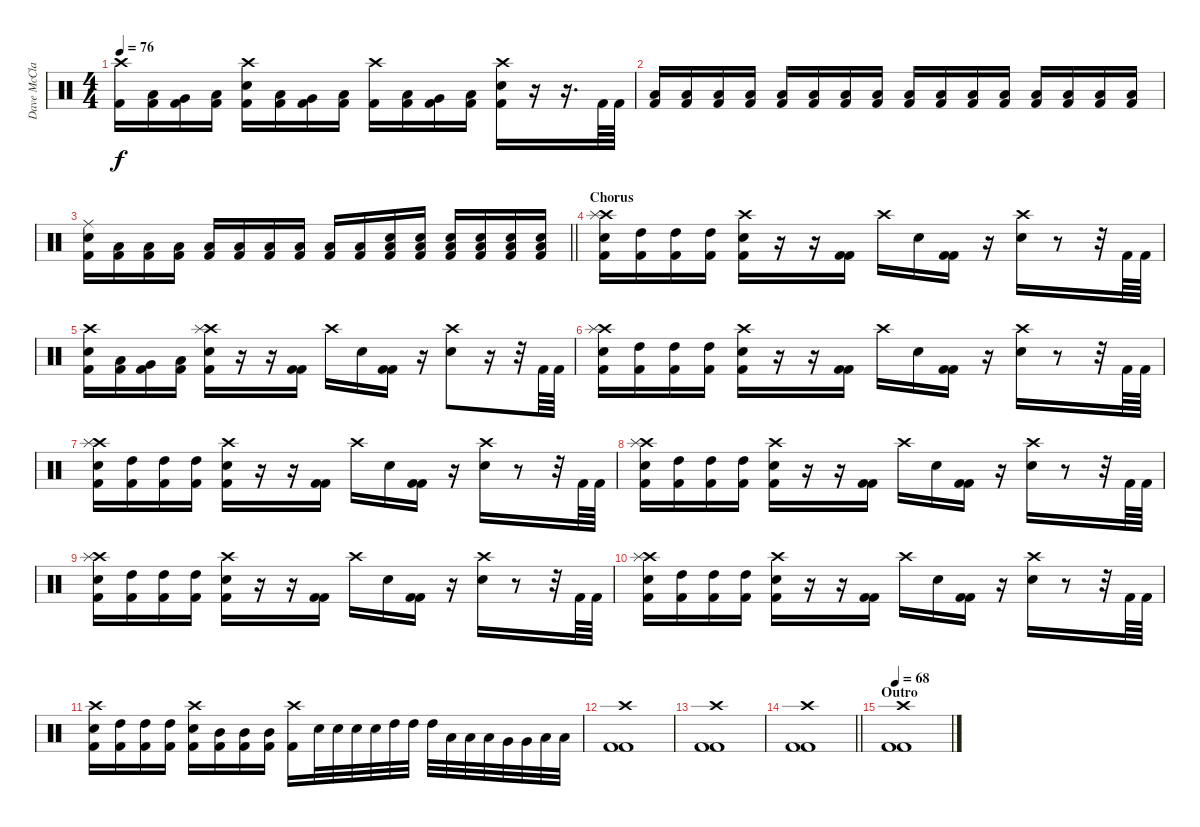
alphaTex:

\track ("Dave McClain - Drums" "Dave McCla") {instrument percussion}
\staff {score}
\articulation defaults
\ts (4 4)
\tempo 76
\clef neutral
\ks c
("Crash high (hit)" "Kick (hit) 2").16{dy f} ("Low Tom (hit)" "Kick (hit) 2").16 ("Very Low Tom (hit)" "Kick (hit) 2").16 ("Low Floor Tom (hit)" "Kick (hit) 2").16 ("Crash high (hit)" "Electric Snare (hit)" "Kick (hit) 2").16 ("Low Tom (hit)" "Kick (hit) 2").16 ("Very Low Tom (hit)" "Kick (hit) 2").16 ("Low Floor Tom (hit)" "Kick (hit) 2").16 ("Crash high (hit)" "Kick (hit) 2").16 ("Low Tom (hit)" "Kick (hit) 2").16 ("Very Low Tom (hit)" "Kick (hit) 2").16 ("Low Floor Tom (hit)" "Kick (hit) 2").16 ("Crash high (hit)" "Electric Snare (hit)" "Kick (hit) 2").16 r.16 r.16{d} "Kick (hit) 2".64 "Kick (hit) 2".64 |
("Low Floor Tom (hit)" "Kick (hit) 2").16 ("Low Floor Tom (hit)" "Kick (hit) 2").16 ("Low Floor Tom (hit)" "Kick (hit) 2").16 ("Low Floor Tom (hit)" "Kick (hit) 2").16 ("Low Floor Tom (hit)" "Kick (hit) 2").16 ("Low Floor Tom (hit)" "Kick (hit) 2").16 ("Low Floor Tom (hit)" "Kick (hit) 2").16 ("Low Floor Tom (hit)" "Kick (hit) 2").16 ("Low Floor Tom (hit)" "Kick (hit) 2").16 ("Low Floor Tom (hit)" "Kick (hit) 2").16 ("Low Floor Tom (hit)" "Kick (hit) 2").16 ("Low Floor Tom (hit)" "Kick (hit) 2").16 ("Low Floor Tom (hit)" "Kick (hit) 2").16 ("Low Floor Tom (hit)" "Kick (hit) 2").16 ("Low Floor Tom (hit)" "Kick (hit) 2").16 ("Low Floor Tom (hit)" "Kick (hit) 2").16 |
\barLineRight lightlight
("Ride (middle)" "Electric Snare (hit)" "Kick (hit) 2").16 ("Low Floor Tom (hit)" "Kick (hit) 2").16 ("Low Floor Tom (hit)" "Kick (hit) 2").16 ("Low Floor Tom (hit)" "Kick (hit) 2").16 ("Low Floor Tom (hit)" "Kick (hit) 2").16 ("Low Floor Tom (hit)" "Kick (hit) 2").16 ("Low Floor Tom (hit)" "Kick (hit) 2").16 ("Low Floor Tom (hit)" "Kick (hit) 2").16 ("Low Floor Tom (hit)" "Kick (hit) 2").16 ("Low Floor Tom (hit)" "Kick (hit) 2").16 ("Electric Snare (hit)" "Low Floor Tom (hit)" "Kick (hit) 2").16 ("Electric Snare (hit)" "Low Floor Tom (hit)" "Kick (hit) 2").16 ("Electric Snare (hit)" "Low Floor Tom (hit)" "Kick (hit) 2").16 ("Electric Snare (hit)" "Low Floor Tom (hit)" "Kick (hit) 2").16 ("Electric Snare (hit)" "Low Floor Tom (hit)" "Kick (hit) 2").16 ("Electric Snare (hit)" "Low Floor Tom (hit)" "Kick (hit) 2").16 |
\section ("" "Chorus")
("Crash high (hit)" "Splash (hit)" "Electric Snare (hit)" "Kick (hit) 2").16 ("High Tom (hit)" "Kick (hit) 2").16 ("High Tom (hit)" "Kick (hit) 2").16 ("High Tom (hit)" "Kick (hit) 2").16 ("Crash high (hit)" "Electric Snare (hit)" "Kick (hit) 2").16 r.16 r.16 ("Kick (hit) 2" "Kick (hit) 2").16 "Crash high (hit)".16 "Electric Snare (hit)".16 ("Kick (hit) 2" "Kick (hit) 2").16 r.16 ("Crash high (hit)" "Electric Snare (hit)").16 r.8 r.32 "Kick (hit) 2".64 "Kick (hit) 2".64 |
("Crash high (hit)" "Electric Snare (hit)" "Kick (hit) 2").16 ("Low Tom (hit)" "Kick (hit) 2").16 ("Very Low Tom (hit)" "Kick (hit) 2").16 ("Low Floor Tom (hit)" "Kick (hit) 2").16 ("Crash high (hit)" "Splash (hit)" "Electric Snare (hit)" "Kick (hit) 2").16 r.16 r.16 ("Kick (hit) 2" "Kick (hit) 2").16 "Crash high (hit)".16 "Electric Snare (hit)".16 ("Kick (hit) 2" "Kick (hit) 2").16 r.16 ("Crash high (hit)" "Electric Snare (hit)").8 r.16 r.32 "Kick (hit) 2".64 "Kick (hit) 2".64 |
("Crash high (hit)" "Splash (hit)" "Electric Snare (hit)" "Kick (hit) 2").16 ("High Tom (hit)" "Kick (hit) 2").16 ("High Tom (hit)" "Kick (hit) 2").16 ("High Tom (hit)" "Kick (hit) 2").16 ("Crash high (hit)" "Electric Snare (hit)" "Kick (hit) 2").16 r.16 r.16 ("Kick (hit) 2" "Kick (hit) 2").16 "Crash high (hit)".16 "Electric Snare (hit)".16 ("Kick (hit) 2" "Kick (hit) 2").16 r.16 ("Crash high (hit)" "Electric Snare (hit)").16 r.8 r.32 "Kick (hit) 2".64 "Kick (hit) 2".64 |
("Crash high (hit)" "Splash (hit)" "Electric Snare (hit)" "Kick (hit) 2").16 ("High Tom (hit)" "Kick (hit) 2").16 ("High Tom (hit)" "Kick (hit) 2").16 ("High Tom (hit)" "Kick (hit) 2").16 ("Crash high (hit)" "Electric Snare (hit)" "Kick (hit) 2").16 r.16 r.16 ("Kick (hit) 2" "Kick (hit) 2").16 "Crash high (hit)".16 "Electric Snare (hit)".16 ("Kick (hit) 2" "Kick (hit) 2").16 r.16 ("Crash high (hit)" "Electric Snare (hit)").16 r.8 r.32 "Kick (hit) 2".64 "Kick (hit) 2".64 |
("Crash high (hit)" "Splash (hit)" "Electric Snare (hit)" "Kick (hit) 2").16 ("High Tom (hit)" "Kick (hit) 2").16 ("High Tom (hit)" "Kick (hit) 2").16 ("High Tom (hit)" "Kick (hit) 2").16 ("Crash high (hit)" "Electric Snare (hit)" "Kick (hit) 2").16 r.16 r.16 ("Kick (hit) 2" "Kick (hit) 2").16 "Crash high (hit)".16 "Electric Snare (hit)".16 ("Kick (hit) 2" "Kick (hit) 2").16 r.16 ("Crash high (hit)" "Electric Snare (hit)").16 r.8 r.32 "Kick (hit) 2".64 "Kick (hit) 2".64 |
("Crash high (hit)" "Splash (hit)" "Electric Snare (hit)" "Kick (hit) 2").16 ("High Tom (hit)" "Kick (hit) 2").16 ("High Tom (hit)" "Kick (hit) 2").16 ("High Tom (hit)" "Kick (hit) 2").16 ("Crash high (hit)" "Electric Snare (hit)" "Kick (hit) 2").16 r.16 r.16 ("Kick (hit) 2" "Kick (hit) 2").16 "Crash high (hit)".16 "Electric Snare (hit)".16 ("Kick (hit) 2" "Kick (hit) 2").16 r.16 ("Crash high (hit)" "Electric Snare (hit)").16 r.8 r.32 "Kick (hit) 2".64 "Kick (hit) 2".64 |
("Crash high (hit)" "Splash (hit)" "Electric Snare (hit)" "Kick (hit) 2").16 ("High Tom (hit)" "Kick (hit) 2").16 ("High Tom (hit)" "Kick (hit) 2").16 ("High Tom (hit)" "Kick (hit) 2").16 ("Crash high (hit)" "Electric Snare (hit)" "Kick (hit) 2").16 r.16 r.16 ("Kick (hit) 2" "Kick (hit) 2").16 "Crash high (hit)".16 "Electric Snare (hit)".16 ("Kick (hit) 2" "Kick (hit) 2").16 r.16 ("Crash high (hit)" "Electric Snare (hit)").16 r.8 r.32 "Kick (hit) 2".64 "Kick (hit) 2".64 |
("Crash high (hit)" "Electric Snare (hit)" "Kick (hit) 2").16 ("High Tom (hit)" "Kick (hit) 2").16 ("High Tom (hit)" "Kick (hit) 2").16 ("High Tom (hit)" "Kick (hit) 2").16 ("Crash high (hit)" "Electric Snare (hit)" "Kick (hit) 2").16 ("Mid Tom (hit)" "Kick (hit) 2").16 ("Mid Tom (hit)" "Kick (hit) 2").16 ("Mid Tom (hit)" "Kick (hit) 2").16 ("Crash high (hit)" "Kick (hit) 2").16 "Electric Snare (hit)".32 "Electric Snare (hit)".32 "Electric Snare (hit)".32 "Electric Snare (hit)".32 "High Tom (hit)".32 "High Tom (hit)".32 "High Tom (hit)".32 "Low Tom (hit)".32 "Low Tom (hit)".32 "Low Tom (hit)".32 "Very Low Tom (hit)".32 "Very Low Tom (hit)".32 "Low Floor Tom (hit)".32 "Low Floor Tom (hit)".32 |
("Crash high (hit)" "Kick (hit) 2" "Kick (hit) 2").1 |
("Crash high (hit)" "Kick (hit) 2" "Kick (hit) 2").1 |
\barLineRight lightlight
("Crash high (hit)" "Kick (hit) 2" "Kick (hit) 2").1 |
\section ("" "Outro")
\tempo 68
("Crash high (hit)" "Kick (hit) 2" "Kick (hit) 2").1
